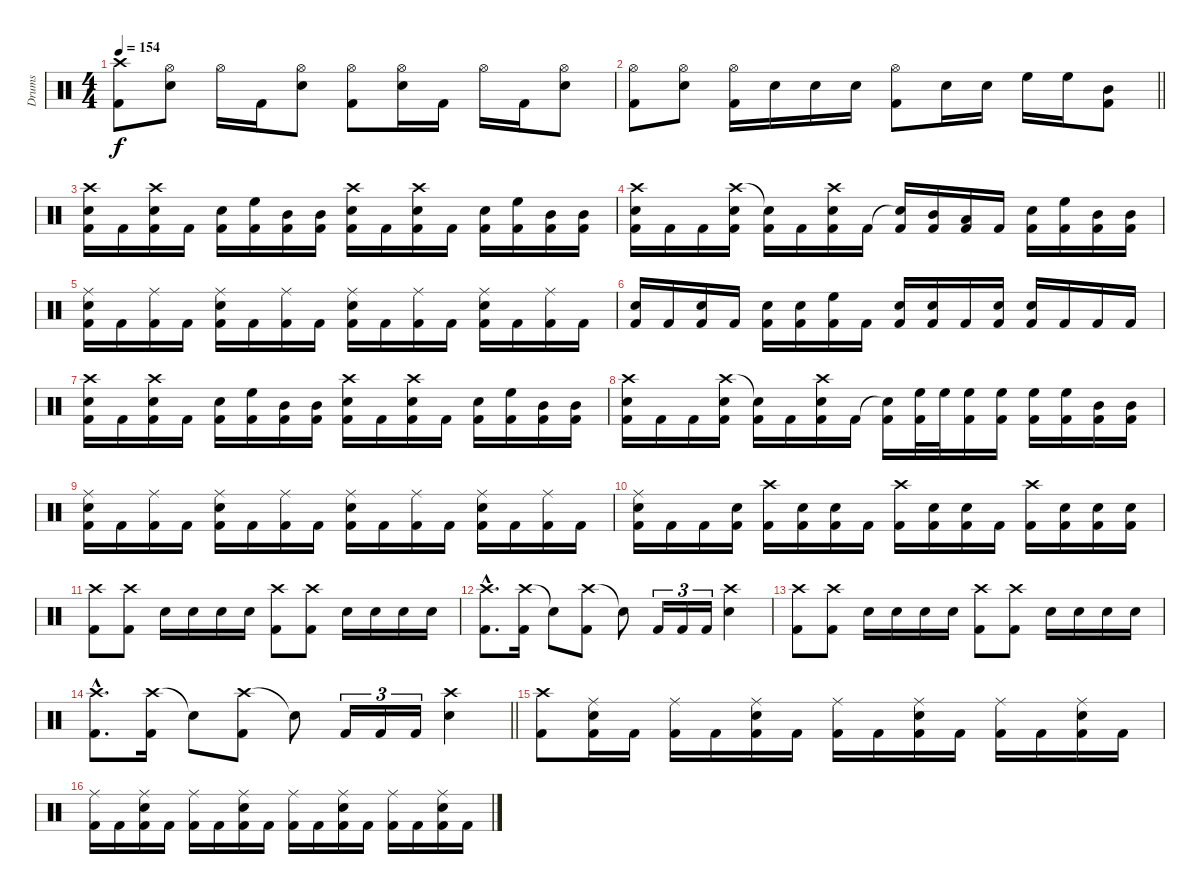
\track ("Drums" "Drums") {instrument percussion}
\staff {score}
\articulation defaults
\ts (4 4)
\tempo 154
\clef neutral
\ks c
("Crash high (hit)" "Kick (hit) 2").8{dy f} ("Hi-Hat (open)" "Snare (hit) 2").8 "Hi-Hat (open)".16 "Kick (hit) 2".16 ("Hi-Hat (open)" "Snare (hit) 2").8 ("Hi-Hat (open)" "Kick (hit) 2").8 ("Hi-Hat (open)" "Snare (hit) 2").16 "Kick (hit) 2".16 "Hi-Hat (open)".16 "Kick (hit) 2".16 ("Hi-Hat (open)" "Snare (hit) 2").8 |
\barLineRight lightlight
("Hi-Hat (open)" "Kick (hit) 2").8 ("Hi-Hat (open)" "Snare (hit) 2").8 ("Hi-Hat (open)" "Kick (hit) 2").16 "Snare (hit) 2".16 "Snare (hit) 2".16 "Snare (hit) 2".16 ("Hi-Hat (open)" "Kick (hit) 2").8 "Snare (hit) 2".16 "Snare (hit) 2".16 "High Floor Tom (hit)".16 "High Floor Tom (hit)".16 ("Mid Tom (hit)" "Kick (hit) 2").8 |
("Crash high (hit)" "Snare (hit) 2" "Kick (hit) 2").16 "Kick (hit) 2".16 ("Crash high (hit)" "Snare (hit) 2" "Kick (hit) 2").16 "Kick (hit) 2".16 ("Snare (hit) 2" "Kick (hit) 2").16 ("High Floor Tom (hit)" "Kick (hit) 2").16 ("Mid Tom (hit)" "Kick (hit) 2").16 ("Mid Tom (hit)" "Kick (hit) 2").16 ("Crash high (hit)" "Snare (hit) 2" "Kick (hit) 2").16 "Kick (hit) 2".16 ("Crash high (hit)" "Snare (hit) 2" "Kick (hit) 2").16 "Kick (hit) 2".16 ("Snare (hit) 2" "Kick (hit) 2").16 ("High Floor Tom (hit)" "Kick (hit) 2").16 ("Mid Tom (hit)" "Kick (hit) 2").16 ("Mid Tom (hit)" "Kick (hit) 2").16 |
("Crash high (hit)" "Snare (hit) 2" "Kick (hit) 2").16 "Kick (hit) 2".16 "Kick (hit) 2".16 ("Crash high (hit)" "Snare (hit) 2" "Kick (hit) 2").16 ("Snare (hit)"{t} "Kick (hit) 2").16 "Kick (hit) 2".16 ("Crash high (hit)" "Snare (hit) 2" "Kick (hit) 2").16 "Kick (hit) 2".16 ("Snare (hit)"{t} "Kick (hit) 2").16 ("Mid Tom (hit)" "Kick (hit) 2").16 ("Low Floor Tom (hit)" "Kick (hit) 2").16 "Kick (hit) 2".16 ("Snare (hit) 2" "Kick (hit) 2").16 ("High Floor Tom (hit)" "Kick (hit) 2").16 ("Mid Tom (hit)" "Kick (hit) 2").16 ("Mid Tom (hit)" "Kick (hit) 2").16 |
("Ride (middle)" "Snare (hit) 2" "Kick (hit) 2").16 "Kick (hit) 2".16 ("Ride (middle)" "Kick (hit) 2").16 "Kick (hit) 2".16 ("Ride (middle)" "Snare (hit) 2" "Kick (hit) 2").16 "Kick (hit) 2".16 ("Ride (middle)" "Kick (hit) 2").16 "Kick (hit) 2".16 ("Ride (middle)" "Snare (hit) 2" "Kick (hit) 2").16 "Kick (hit) 2".16 ("Ride (middle)" "Kick (hit) 2").16 "Kick (hit) 2".16 ("Ride (middle)" "Snare (hit) 2" "Kick (hit) 2").16 "Kick (hit) 2".16 ("Ride (middle)" "Kick (hit) 2").16 "Kick (hit) 2".16 |
("Snare (hit) 2" "Kick (hit) 2").16 "Kick (hit) 2".16 ("Snare (hit) 2" "Kick (hit) 2").16 "Kick (hit) 2".16 ("Snare (hit) 2" "Kick (hit) 2").16 ("Snare (hit) 2" "Kick (hit) 2").16 ("High Floor Tom (hit)" "Kick (hit) 2").16 "Kick (hit) 2".16 ("Snare (hit) 2" "Kick (hit) 2").16 ("Snare (hit) 2" "Kick (hit) 2").16 "Kick (hit) 2".16 ("Snare (hit) 2" "Kick (hit) 2").16 ("Snare (hit) 2" "Kick (hit) 2").16 "Kick (hit) 2".16 "Kick (hit) 2".16 "Kick (hit) 2".16 |
("Crash high (hit)" "Snare (hit) 2" "Kick (hit) 2").16 "Kick (hit) 2".16 ("Crash high (hit)" "Snare (hit) 2" "Kick (hit) 2").16 "Kick (hit) 2".16 ("Snare (hit) 2" "Kick (hit) 2").16 ("High Floor Tom (hit)" "Kick (hit) 2").16 ("Mid Tom (hit)" "Kick (hit) 2").16 ("Mid Tom (hit)" "Kick (hit) 2").16 ("Crash high (hit)" "Snare (hit) 2" "Kick (hit) 2").16 "Kick (hit) 2".16 ("Crash high (hit)" "Snare (hit) 2" "Kick (hit) 2").16 "Kick (hit) 2".16 ("Snare (hit) 2" "Kick (hit) 2").16 ("High Floor Tom (hit)" "Kick (hit) 2").16 ("Mid Tom (hit)" "Kick (hit) 2").16 ("Mid Tom (hit)" "Kick (hit) 2").16 |
("Crash high (hit)" "Snare (hit) 2" "Kick (hit) 2").16 "Kick (hit) 2".16 "Kick (hit) 2".16 ("Crash high (hit)" "Snare (hit) 2" "Kick (hit) 2").16 ("Snare (hit)"{t} "Kick (hit) 2").16 "Kick (hit) 2".16 ("Crash high (hit)" "Snare (hit) 2" "Kick (hit) 2").16 "Kick (hit) 2".16 ("Snare (hit)"{t} "Kick (hit) 2").16 ("High Floor Tom (hit)" "Kick (hit) 2").32 "High Floor Tom (hit)".32 ("High Floor Tom (hit)" "Kick (hit) 2").16 ("High Floor Tom (hit)" "Kick (hit) 2").16 ("High Floor Tom (hit)" "Kick (hit) 2").16 ("High Floor Tom (hit)" "Kick (hit) 2").16 ("Mid Tom (hit)" "Kick (hit) 2").16 ("Mid Tom (hit)" "Kick (hit) 2").16 |
("Ride (middle)" "Snare (hit) 2" "Kick (hit) 2").16 "Kick (hit) 2".16 ("Ride (middle)" "Kick (hit) 2").16 "Kick (hit) 2".16 ("Ride (middle)" "Snare (hit) 2" "Kick (hit) 2").16 "Kick (hit) 2".16 ("Ride (middle)" "Kick (hit) 2").16 "Kick (hit) 2".16 ("Ride (middle)" "Snare (hit) 2" "Kick (hit) 2").16 "Kick (hit) 2".16 ("Ride (middle)" "Kick (hit) 2").16 "Kick (hit) 2".16 ("Ride (middle)" "Snare (hit) 2" "Kick (hit) 2").16 "Kick (hit) 2".16 ("Ride (middle)" "Kick (hit) 2").16 "Kick (hit) 2".16 |
("Ride (middle)" "Snare (hit) 2" "Kick (hit) 2").16 "Kick (hit) 2".16 "Kick (hit) 2".16 ("Snare (hit) 2" "Kick (hit) 2").16 ("Crash high (hit)" "Kick (hit) 2").16 ("Snare (hit) 2" "Kick (hit) 2").16 ("Snare (hit) 2" "Kick (hit) 2").16 "Kick (hit) 2".16 ("Crash high (hit)" "Kick (hit) 2").16 ("Snare (hit) 2" "Kick (hit) 2").16 ("Snare (hit) 2" "Kick (hit) 2").16 "Kick (hit) 2".16 ("Crash high (hit)" "Kick (hit) 2").16 ("Snare (hit) 2" "Kick (hit) 2").16 ("Snare (hit) 2" "Kick (hit) 2").16 ("Snare (hit) 2" "Kick (hit) 2").16 |
("Crash high (hit)" "Kick (hit) 2").8 ("Crash high (hit)" "Kick (hit) 2").8 "Snare (hit) 2".16 "Snare (hit) 2".16 "Snare (hit) 2".16 "Snare (hit) 2".16 ("Crash high (hit)" "Kick (hit) 2").8 ("Crash high (hit)" "Kick (hit) 2").8 "Snare (hit) 2".16 "Snare (hit) 2".16 "Snare (hit) 2".16 "Snare (hit) 2".16 |
("Crash high (hit)"{hac} "Kick (hit) 2"{hac}).8{d} ("Crash high (hit)" "Kick (hit) 2").16 "Snare (hit)"{t}.8 ("Crash high (hit)" "Kick (hit) 2").8 "Snare (hit)"{t}.8 "Kick (hit) 2".16{tu (3 2)} "Kick (hit) 2".16{tu (3 2)} "Kick (hit) 2".16{tu (3 2)} ("Crash high (hit)" "Snare (hit) 2").4 |
("Crash high (hit)" "Kick (hit) 2").8 ("Crash high (hit)" "Kick (hit) 2").8 "Snare (hit) 2".16 "Snare (hit) 2".16 "Snare (hit) 2".16 "Snare (hit) 2".16 ("Crash high (hit)" "Kick (hit) 2").8 ("Crash high (hit)" "Kick (hit) 2").8 "Snare (hit) 2".16 "Snare (hit) 2".16 "Snare (hit) 2".16 "Snare (hit) 2".16 |
\barLineRight lightlight
("Crash high (hit)"{hac} "Kick (hit) 2"{hac}).8{d} ("Crash high (hit)" "Kick (hit) 2").16 "Snare (hit)"{t}.8 ("Crash high (hit)" "Kick (hit) 2").8 "Snare (hit)"{t}.8 "Kick (hit) 2".16{tu (3 2)} "Kick (hit) 2".16{tu (3 2)} "Kick (hit) 2".16{tu (3 2)} ("Crash high (hit)" "Snare (hit) 2").4 |
("Crash high (hit)" "Kick (hit) 2").8 ("Ride (middle)" "Snare (hit) 2" "Kick (hit) 2").16 "Kick (hit) 2".16 ("Ride (middle)" "Kick (hit) 2").16 "Kick (hit) 2".16 ("Ride (middle)" "Snare (hit) 2" "Kick (hit) 2").16 "Kick (hit) 2".16 ("Ride (middle)" "Kick (hit) 2").16 "Kick (hit) 2".16 ("Ride (middle)" "Snare (hit) 2" "Kick (hit) 2").16 "Kick (hit) 2".16 ("Ride (middle)" "Kick (hit) 2").16 "Kick (hit) 2".16 ("Ride (middle)" "Snare (hit) 2" "Kick (hit) 2").16 "Kick (hit) 2".16 |
("Ride (middle)" "Kick (hit) 2").16 "Kick (hit) 2".16 ("Ride (middle)" "Snare (hit) 2" "Kick (hit) 2").16 "Kick (hit) 2".16 ("Ride (middle)" "Kick (hit) 2").16 "Kick (hit) 2".16 ("Ride (middle)" "Snare (hit) 2" "Kick (hit) 2").16 "Kick (hit) 2".16 ("Ride (middle)" "Kick (hit) 2").16 "Kick (hit) 2".16 ("Ride (middle)" "Snare (hit) 2" "Kick (hit) 2").16 "Kick (hit) 2".16 ("Ride (middle)" "Kick (hit) 2").16 "Kick (hit) 2".16 ("Ride (middle)" "Snare (hit) 2" "Kick (hit) 2").16 "Kick (hit) 2".16
